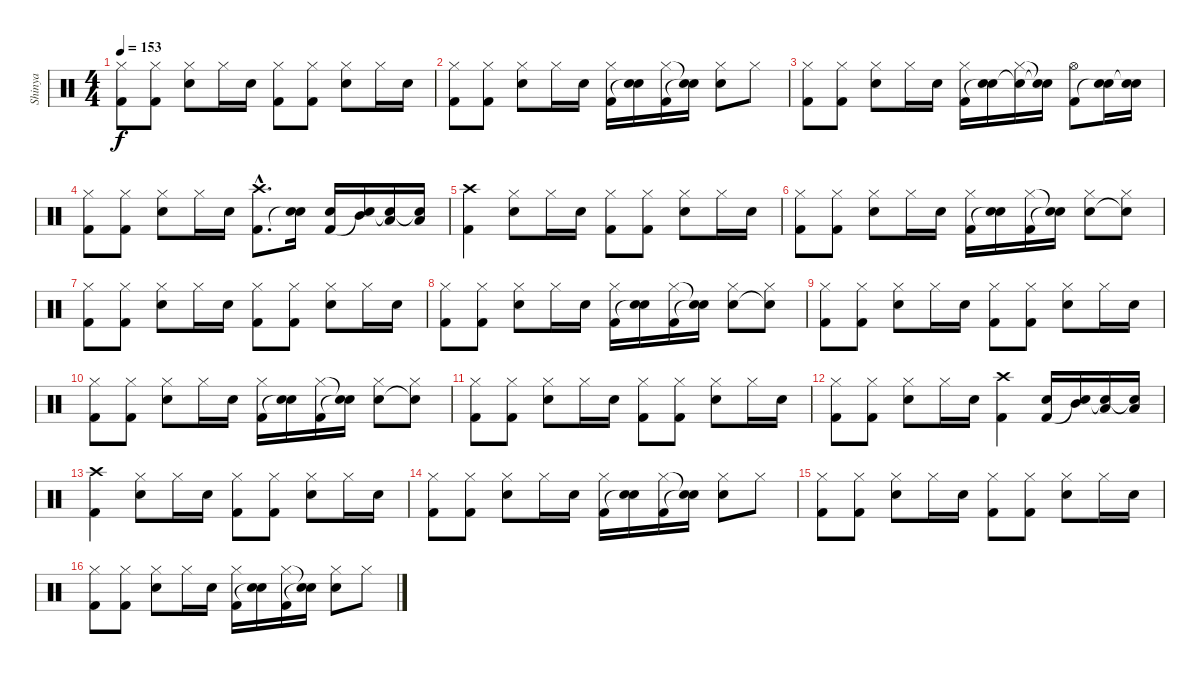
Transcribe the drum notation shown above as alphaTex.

\track ("Shinya" "Shinya") {instrument percussion}
\staff {score}
\articulation defaults
\ts (4 4)
\tempo 153
\clef neutral
\ks c
("Hi-Hat (closed)" "Kick (hit) 2").8{dy f} ("Hi-Hat (closed)" "Kick (hit) 2").8 ("Hi-Hat (closed)" "Electric Snare (hit)").8 "Hi-Hat (closed)".16 "Electric Snare (hit)".16 ("Hi-Hat (closed)" "Kick (hit) 2").8 ("Hi-Hat (closed)" "Kick (hit) 2").8 ("Hi-Hat (closed)" "Electric Snare (hit)").8 "Hi-Hat (closed)".16 "Electric Snare (hit)".16 |
("Hi-Hat (closed)" "Kick (hit) 2").8 ("Hi-Hat (closed)" "Kick (hit) 2").8 ("Hi-Hat (closed)" "Electric Snare (hit)").8 "Hi-Hat (closed)".16 "Electric Snare (hit)".16 ("Hi-Hat (closed)" "Kick (hit) 2").16 ("Electric Snare (hit)" "Snare (hit)"{t}).16 ("Hi-Hat (closed)" "Kick (hit) 2").16 ("Snare (hit)"{t} "Snare (hit)"{t}).16 ("Hi-Hat (closed)" "Electric Snare (hit)").8 "Hi-Hat (closed)".8 |
("Hi-Hat (closed)" "Kick (hit) 2").8 ("Hi-Hat (closed)" "Kick (hit) 2").8 ("Hi-Hat (closed)" "Electric Snare (hit)").8 "Hi-Hat (closed)".16 "Electric Snare (hit)".16 ("Hi-Hat (closed)" "Kick (hit) 2").16 ("Electric Snare (hit)" "Snare (hit)"{t}).16 ("Hi-Hat (closed)" "Snare (hit)"{t}).16 ("Snare (hit)"{t} "Snare (hit)"{t}).16 ("Hi-Hat (open)" "Kick (hit) 2").8 ("Electric Snare (hit)" "Snare (hit)"{t}).16 ("Electric Snare (hit)" "Snare (hit)"{t}).16 |
("Hi-Hat (closed)" "Kick (hit) 2").8 ("Hi-Hat (closed)" "Kick (hit) 2").8 ("Hi-Hat (closed)" "Electric Snare (hit)").8 "Hi-Hat (closed)".16 "Electric Snare (hit)".16 ("Crash high (hit)"{hac} "Kick (hit) 2"{hac}).8{d} ("Electric Snare (hit)" "Snare (hit)"{t}).16 ("Electric Snare (hit)" "Kick (hit) 2").16 ("Mid Tom (hit)" "Snare (hit)"{t}).16 ("Low Tom (hit)" "Snare (hit)"{t}).16 ("Low Floor Tom (hit)" "Snare (hit)"{t}).16 |
("Crash high (hit)" "Kick (hit) 2").4 ("Hi-Hat (closed)" "Electric Snare (hit)").8 "Hi-Hat (closed)".16 "Electric Snare (hit)".16 ("Hi-Hat (closed)" "Kick (hit) 2").8 ("Hi-Hat (closed)" "Kick (hit) 2").8 ("Hi-Hat (closed)" "Electric Snare (hit)").8 "Hi-Hat (closed)".16 "Electric Snare (hit)".16 |
("Hi-Hat (closed)" "Kick (hit) 2").8 ("Hi-Hat (closed)" "Kick (hit) 2").8 ("Hi-Hat (closed)" "Electric Snare (hit)").8 "Hi-Hat (closed)".16 "Electric Snare (hit)".16 ("Hi-Hat (closed)" "Kick (hit) 2").16 ("Electric Snare (hit)" "Snare (hit)"{t}).16 ("Hi-Hat (closed)" "Kick (hit) 2").16 ("Snare (hit)"{t} "Snare (hit)"{t}).16 ("Hi-Hat (closed)" "Electric Snare (hit)").8 ("Hi-Hat (closed)" "Snare (hit)"{t}).8 |
("Hi-Hat (closed)" "Kick (hit) 2").8 ("Hi-Hat (closed)" "Kick (hit) 2").8 ("Hi-Hat (closed)" "Electric Snare (hit)").8 "Hi-Hat (closed)".16 "Electric Snare (hit)".16 ("Hi-Hat (closed)" "Kick (hit) 2").8 ("Hi-Hat (closed)" "Kick (hit) 2").8 ("Hi-Hat (closed)" "Electric Snare (hit)").8 "Hi-Hat (closed)".16 "Electric Snare (hit)".16 |
("Hi-Hat (closed)" "Kick (hit) 2").8 ("Hi-Hat (closed)" "Kick (hit) 2").8 ("Hi-Hat (closed)" "Electric Snare (hit)").8 "Hi-Hat (closed)".16 "Electric Snare (hit)".16 ("Hi-Hat (closed)" "Kick (hit) 2").16 ("Electric Snare (hit)" "Snare (hit)"{t}).16 ("Hi-Hat (closed)" "Kick (hit) 2").16 ("Snare (hit)"{t} "Snare (hit)"{t}).16 ("Hi-Hat (closed)" "Electric Snare (hit)").8 ("Hi-Hat (closed)" "Snare (hit)"{t}).8 |
("Hi-Hat (closed)" "Kick (hit) 2").8 ("Hi-Hat (closed)" "Kick (hit) 2").8 ("Hi-Hat (closed)" "Electric Snare (hit)").8 "Hi-Hat (closed)".16 "Electric Snare (hit)".16 ("Hi-Hat (closed)" "Kick (hit) 2").8 ("Hi-Hat (closed)" "Kick (hit) 2").8 ("Hi-Hat (closed)" "Electric Snare (hit)").8 "Hi-Hat (closed)".16 "Electric Snare (hit)".16 |
("Hi-Hat (closed)" "Kick (hit) 2").8 ("Hi-Hat (closed)" "Kick (hit) 2").8 ("Hi-Hat (closed)" "Electric Snare (hit)").8 "Hi-Hat (closed)".16 "Electric Snare (hit)".16 ("Hi-Hat (closed)" "Kick (hit) 2").16 ("Electric Snare (hit)" "Snare (hit)"{t}).16 ("Hi-Hat (closed)" "Kick (hit) 2").16 ("Snare (hit)"{t} "Snare (hit)"{t}).16 ("Hi-Hat (closed)" "Electric Snare (hit)").8 ("Hi-Hat (closed)" "Snare (hit)"{t}).8 |
("Hi-Hat (closed)" "Kick (hit) 2").8 ("Hi-Hat (closed)" "Kick (hit) 2").8 ("Hi-Hat (closed)" "Electric Snare (hit)").8 "Hi-Hat (closed)".16 "Electric Snare (hit)".16 ("Hi-Hat (closed)" "Kick (hit) 2").8 ("Hi-Hat (closed)" "Kick (hit) 2").8 ("Hi-Hat (closed)" "Electric Snare (hit)").8 "Hi-Hat (closed)".16 "Electric Snare (hit)".16 |
("Hi-Hat (closed)" "Kick (hit) 2").8 ("Hi-Hat (closed)" "Kick (hit) 2").8 ("Hi-Hat (closed)" "Electric Snare (hit)").8 "Hi-Hat (closed)".16 "Electric Snare (hit)".16 ("Crash high (hit)" "Kick (hit) 2").4 ("Electric Snare (hit)" "Kick (hit) 2").16 ("Mid Tom (hit)" "Snare (hit)"{t}).16 ("Low Tom (hit)" "Snare (hit)"{t}).16 ("Low Floor Tom (hit)" "Snare (hit)"{t}).16 |
("Crash high (hit)" "Kick (hit) 2").4 ("Hi-Hat (closed)" "Electric Snare (hit)").8 "Hi-Hat (closed)".16 "Electric Snare (hit)".16 ("Hi-Hat (closed)" "Kick (hit) 2").8 ("Hi-Hat (closed)" "Kick (hit) 2").8 ("Hi-Hat (closed)" "Electric Snare (hit)").8 "Hi-Hat (closed)".16 "Electric Snare (hit)".16 |
("Hi-Hat (closed)" "Kick (hit) 2").8 ("Hi-Hat (closed)" "Kick (hit) 2").8 ("Hi-Hat (closed)" "Electric Snare (hit)").8 "Hi-Hat (closed)".16 "Electric Snare (hit)".16 ("Hi-Hat (closed)" "Kick (hit) 2").16 ("Electric Snare (hit)" "Snare (hit)"{t}).16 ("Hi-Hat (closed)" "Kick (hit) 2").16 ("Snare (hit)"{t} "Snare (hit)"{t}).16 ("Hi-Hat (closed)" "Electric Snare (hit)").8 "Hi-Hat (closed)".8 |
("Hi-Hat (closed)" "Kick (hit) 2").8 ("Hi-Hat (closed)" "Kick (hit) 2").8 ("Hi-Hat (closed)" "Electric Snare (hit)").8 "Hi-Hat (closed)".16 "Electric Snare (hit)".16 ("Hi-Hat (closed)" "Kick (hit) 2").8 ("Hi-Hat (closed)" "Kick (hit) 2").8 ("Hi-Hat (closed)" "Electric Snare (hit)").8 "Hi-Hat (closed)".16 "Electric Snare (hit)".16 |
("Hi-Hat (closed)" "Kick (hit) 2").8 ("Hi-Hat (closed)" "Kick (hit) 2").8 ("Hi-Hat (closed)" "Electric Snare (hit)").8 "Hi-Hat (closed)".16 "Electric Snare (hit)".16 ("Hi-Hat (closed)" "Kick (hit) 2").16 ("Electric Snare (hit)" "Snare (hit)"{t}).16 ("Hi-Hat (closed)" "Kick (hit) 2").16 ("Snare (hit)"{t} "Snare (hit)"{t}).16 ("Hi-Hat (closed)" "Electric Snare (hit)").8 "Hi-Hat (closed)".8
